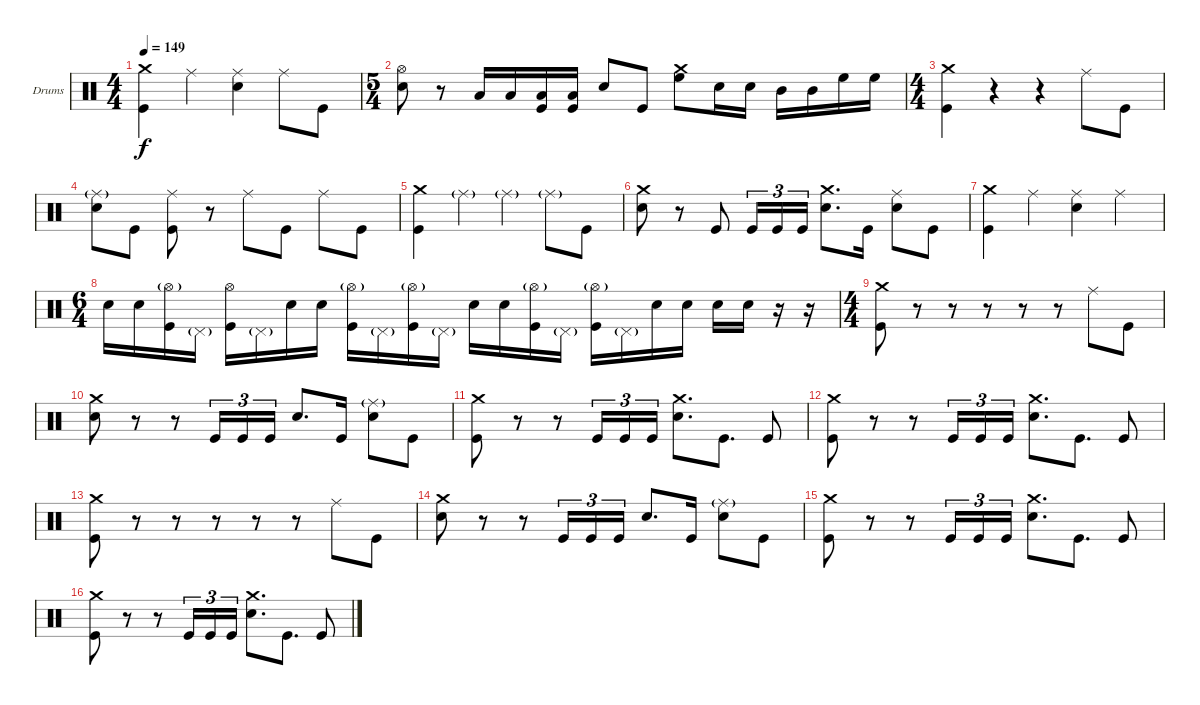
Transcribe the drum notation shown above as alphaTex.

\defaultSystemsLayout 4
\bracketExtendMode groupsimilarinstruments
\firstSystemTrackNameOrientation horizontal
\otherSystemsTrackNameOrientation horizontal
\track ("Moe Carlson" "Drums") {instrument percussion}
\staff {score}
\articulation defaults
\ts (4 4)
\tempo 149
\clef neutral
\ks c
("Crash medium (hit)" "Kick (hit)").4{dy f} "Ride (middle)".4 ("Ride (middle)" "Snare (hit) 2").4 "Ride (middle)".8 "Kick (hit)".8 |
\ts (5 4)
("Hi-Hat (open)" "Snare (hit) 2").8 r.8 "Low Tom (hit)".16 "Low Tom (hit)".16 ("Low Tom (hit)" "Kick (hit)").16 ("Low Tom (hit)" "Kick (hit)").16 "Snare (hit) 2".8 "Kick (hit)".8 ("Crash medium (hit)" "High Floor Tom (hit)").8 "Snare (hit) 2".16 "Snare (hit) 2".16 "Mid Tom (hit)".16 "Mid Tom (hit)".16 "High Floor Tom (hit)".16 "High Floor Tom (hit)".16 |
\ts (4 4)
("Crash medium (hit)" "Kick (hit)").4 r.4 r.4 "Ride (middle)".8 "Kick (hit)".8 |
("Snare (hit) 2" "Ride (middle)"{g}).8 "Kick (hit)".8 ("Kick (hit)" "Ride (middle)").8 r.8 "Ride (middle)".8 "Kick (hit)".8 "Ride (middle)".8 "Kick (hit)".8 |
("Kick (hit)" "Crash medium (hit)").4 "Ride (middle)"{g}.4 "Ride (middle)"{g}.4 "Ride (middle)"{g}.8 "Kick (hit)".8 |
("Snare (hit) 2" "Crash medium (hit)").8 r.8 "Kick (hit)".8 "Kick (hit)".16{tu (3 2)} "Kick (hit)".16{tu (3 2)} "Kick (hit)".16{tu (3 2)} ("Snare (hit) 2" "Crash medium (hit)").8{d} "Kick (hit)".16 ("Snare (hit) 2" "Ride (middle)").8 "Kick (hit)".8 |
("Kick (hit)" "Crash medium (hit)").4 "Ride (middle)".4 ("Ride (middle)" "Snare (hit) 2").4 "Ride (middle)".4 |
\ts (6 4)
"Snare (hit) 2".16 "Snare (hit) 2".16 ("Hi-Hat (open)"{g} "Kick (hit)").16 "Pedal Hi-Hat (hit)"{g}.16 ("Kick (hit)" "Hi-Hat (open)").16 "Pedal Hi-Hat (hit)"{g}.16 "Snare (hit) 2".16 "Snare (hit) 2".16 ("Hi-Hat (open)"{g} "Kick (hit)").16 "Pedal Hi-Hat (hit)"{g}.16 ("Kick (hit)" "Hi-Hat (open)"{g}).16 "Pedal Hi-Hat (hit)"{g}.16 "Snare (hit) 2".16 "Snare (hit) 2".16 ("Hi-Hat (open)"{g} "Kick (hit)").16 "Pedal Hi-Hat (hit)"{g}.16 ("Kick (hit)" "Hi-Hat (open)"{g}).16 "Pedal Hi-Hat (hit)"{g}.16 "Snare (hit) 2".16 "Snare (hit) 2".16 "Snare (hit) 2".16 "Snare (hit) 2".16 r.16 r.16 |
\ts (4 4)
("Kick (hit)" "Crash medium (hit)").8 r.8 r.8 r.8 r.8 r.8 "Ride (middle)".8 "Kick (hit)".8 |
("Snare (hit) 2" "Crash medium (hit)").8 r.8 r.8 "Kick (hit)".16{tu (3 2)} "Kick (hit)".16{tu (3 2)} "Kick (hit)".16{tu (3 2)} "Snare (hit) 2".8{d} "Kick (hit)".16 ("Snare (hit) 2" "Ride (middle)"{g}).8 "Kick (hit)".8 |
("Kick (hit)" "Crash medium (hit)").8 r.8 r.8 "Kick (hit)".16{tu (3 2)} "Kick (hit)".16{tu (3 2)} "Kick (hit)".16{tu (3 2)} ("Snare (hit) 2" "Crash medium (hit)").8{d} "Kick (hit)".8{d} "Kick (hit)".8 |
("Kick (hit)" "Crash medium (hit)").8 r.8 r.8 "Kick (hit)".16{tu (3 2)} "Kick (hit)".16{tu (3 2)} "Kick (hit)".16{tu (3 2)} ("Snare (hit) 2" "Crash medium (hit)").8{d} "Kick (hit)".8{d} "Kick (hit)".8 |
("Kick (hit)" "Crash medium (hit)").8 r.8 r.8 r.8 r.8 r.8 "Ride (middle)".8 "Kick (hit)".8 |
("Snare (hit) 2" "Crash medium (hit)").8 r.8 r.8 "Kick (hit)".16{tu (3 2)} "Kick (hit)".16{tu (3 2)} "Kick (hit)".16{tu (3 2)} "Snare (hit) 2".8{d} "Kick (hit)".16 ("Snare (hit) 2" "Ride (middle)"{g}).8 "Kick (hit)".8 |
("Kick (hit)" "Crash medium (hit)").8 r.8 r.8 "Kick (hit)".16{tu (3 2)} "Kick (hit)".16{tu (3 2)} "Kick (hit)".16{tu (3 2)} ("Snare (hit) 2" "Crash medium (hit)").8{d} "Kick (hit)".8{d} "Kick (hit)".8 |
("Kick (hit)" "Crash medium (hit)").8 r.8 r.8 "Kick (hit)".16{tu (3 2)} "Kick (hit)".16{tu (3 2)} "Kick (hit)".16{tu (3 2)} ("Snare (hit) 2" "Crash medium (hit)").8{d} "Kick (hit)".8{d} "Kick (hit)".8
